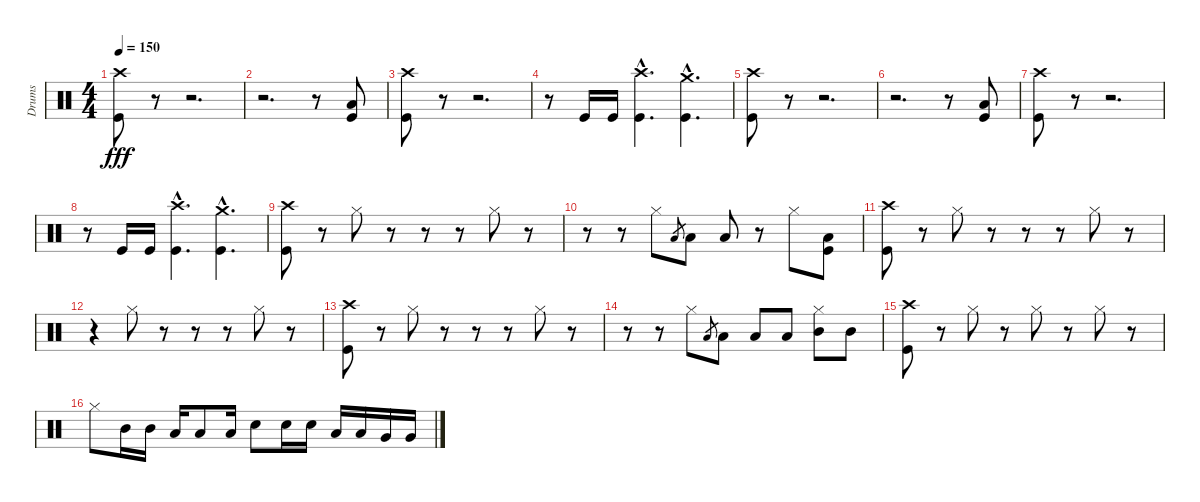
\track ("Drums" "Drums") {instrument percussion}
\staff {score}
\articulation defaults
\ts (4 4)
\tempo 150
\clef neutral
\ks c
("Crash high (hit)" "Kick (hit)").8{dy fff} r.8 r.2{d} |
r.2{d} r.8 ("Low Tom (hit)" "Kick (hit)").8 |
("Crash high (hit)" "Kick (hit)").8 r.8 r.2{d} |
r.8 "Kick (hit)".16 "Kick (hit)".16 ("Crash high (hit)"{hac} "Kick (hit)"{hac}).4{d} ("Crash medium (hit)"{hac} "Kick (hit)"{hac}).4{d} |
("Crash high (hit)" "Kick (hit)").8 r.8 r.2{d} |
r.2{d} r.8 ("Low Tom (hit)" "Kick (hit)").8 |
("Crash high (hit)" "Kick (hit)").8 r.8 r.2{d} |
r.8 "Kick (hit)".16 "Kick (hit)".16 ("Crash high (hit)"{hac} "Kick (hit)"{hac}).4{d} ("Crash medium (hit)"{hac} "Kick (hit)"{hac}).4{d} |
("Crash high (hit)" "Kick (hit)").8 r.8 "Hi-Hat (closed)".8 r.8 r.8 r.8 "Hi-Hat (closed)".8 r.8 |
r.8 r.8 "Hi-Hat (closed)".8 "Low Tom (hit)".8{gr} "Low Tom (hit)".8 "Low Tom (hit)".8 r.8 "Hi-Hat (closed)".8 ("Low Tom (hit)" "Kick (hit)").8 |
("Crash high (hit)" "Kick (hit)").8 r.8 "Hi-Hat (closed)".8 r.8 r.8 r.8 "Hi-Hat (closed)".8 r.8 |
r.4 "Hi-Hat (closed)".8 r.8 r.8 r.8 "Hi-Hat (closed)".8 r.8 |
("Crash high (hit)" "Kick (hit)").8 r.8 "Hi-Hat (closed)".8 r.8 r.8 r.8 "Hi-Hat (closed)".8 r.8 |
r.8 r.8 "Hi-Hat (closed)".8 "Low Tom (hit)".8{gr} "Low Tom (hit)".8 "Low Tom (hit)".8 "Low Tom (hit)".8 ("Hi-Hat (closed)" "Mid Tom (hit)").8 "Mid Tom (hit)".8 |
("Crash high (hit)" "Kick (hit)").8 r.8 "Hi-Hat (closed)".8 r.8 "Hi-Hat (closed)".8 r.8 "Hi-Hat (closed)".8 r.8 |
"Hi-Hat (closed)".8 "Mid Tom (hit)".16 "Mid Tom (hit)".16 "Low Tom (hit)".16 "Low Tom (hit)".8 "Low Tom (hit)".16 "Snare (hit) 2".8 "Snare (hit) 2".16 "Snare (hit) 2".16 "Low Tom (hit)".16 "Low Tom (hit)".16 "Very Low Tom (hit)".16 "Very Low Tom (hit)".16
